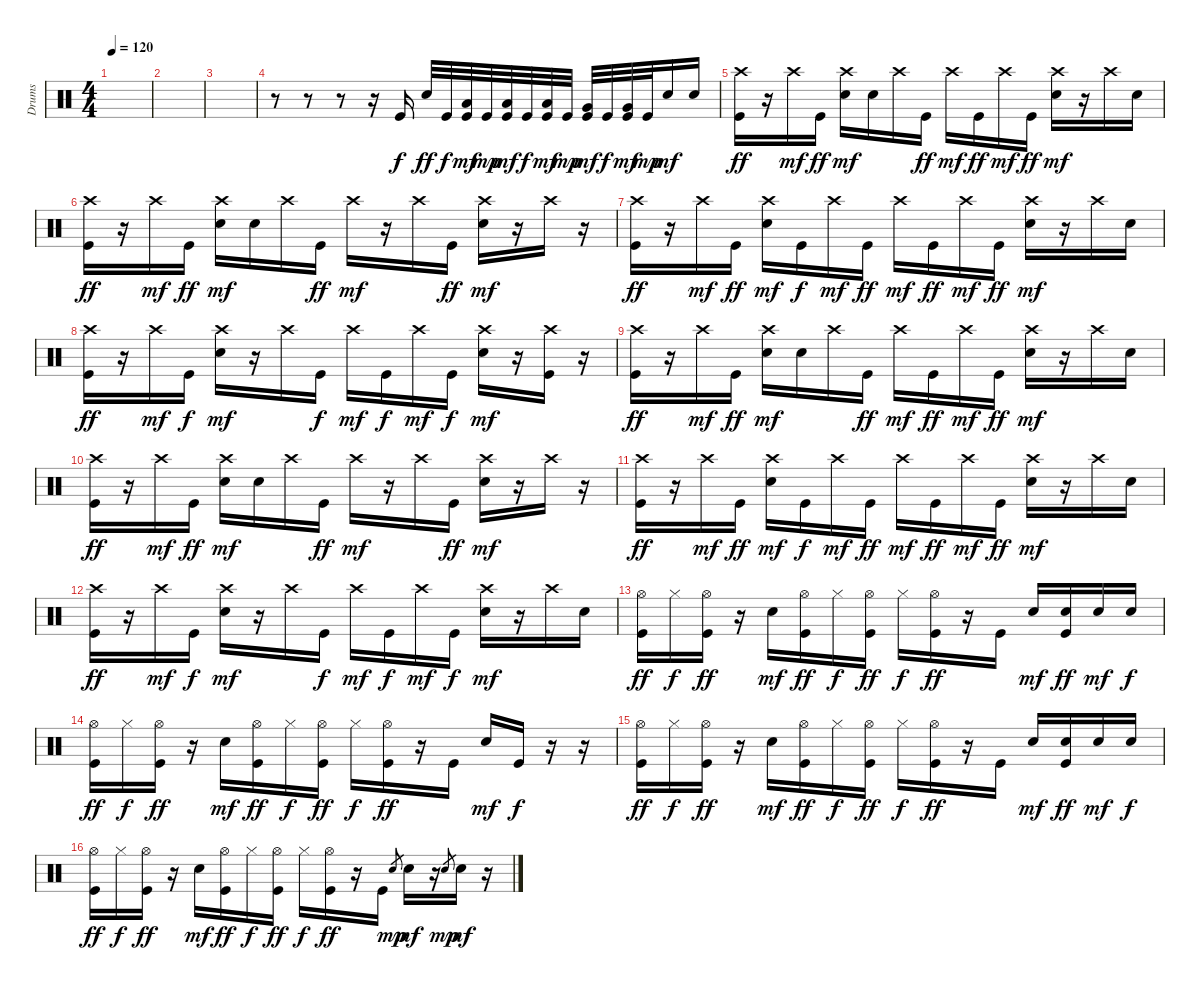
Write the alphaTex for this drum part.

\track ("Drums" "Drums") {instrument percussion}
\staff {score}
\articulation defaults
\ts (4 4)
\tempo 120
\clef neutral
\ks c
|
|
|
r.8 r.8 r.8 r.16 "Kick (hit)".16 "Metronome (bell)".32{dy ff} "Kick (hit)".32{dy f} ("Low Tom (hit)" "Kick (hit)").32{dy mf} "Kick (hit)".32{dy mp} ("Low Tom (hit)" "Kick (hit)").32{dy mf} "Kick (hit)".32{dy f} ("Low Tom (hit)" "Kick (hit)").32{dy mf} "Kick (hit)".32{dy mp} ("Very Low Tom (hit)" "Kick (hit)").32{dy mf} "Kick (hit)".32{dy f} ("Very Low Tom (hit)" "Kick (hit)").32{dy mf} "Kick (hit)".32{dy mp} "Metronome (bell)".16{dy mf} "Metronome (bell)".16 |
("Crash high (hit)" "Kick (hit)").16{dy ff} r.16 "Crash high (hit)".16{dy mf} "Kick (hit)".16{dy ff} ("Crash high (hit)" "Metronome (bell)").16{dy mf} "Metronome (bell)".16 "Crash high (hit)".16 "Kick (hit)".16{dy ff} "Crash high (hit)".16{dy mf} "Kick (hit)".16{dy ff} "Crash high (hit)".16{dy mf} "Kick (hit)".16{dy ff} ("Crash high (hit)" "Metronome (bell)").16{dy mf} r.16 "Crash high (hit)".16 "Metronome (bell)".16 |
("Crash high (hit)" "Kick (hit)").16{dy ff} r.16 "Crash high (hit)".16{dy mf} "Kick (hit)".16{dy ff} ("Crash high (hit)" "Metronome (bell)").16{dy mf} "Metronome (bell)".16 "Crash high (hit)".16 "Kick (hit)".16{dy ff} "Crash high (hit)".16{dy mf} r.16 "Crash high (hit)".16 "Kick (hit)".16{dy ff} ("Crash high (hit)" "Metronome (bell)").16{dy mf} r.16 "Crash high (hit)".16 r.16 |
("Crash high (hit)" "Kick (hit)").16{dy ff} r.16 "Crash high (hit)".16{dy mf} "Kick (hit)".16{dy ff} ("Crash high (hit)" "Metronome (bell)").16{dy mf} "Kick (hit)".16{dy f} "Crash high (hit)".16{dy mf} "Kick (hit)".16{dy ff} "Crash high (hit)".16{dy mf} "Kick (hit)".16{dy ff} "Crash high (hit)".16{dy mf} "Kick (hit)".16{dy ff} ("Crash high (hit)" "Metronome (bell)").16{dy mf} r.16 "Crash high (hit)".16 "Metronome (bell)".16 |
("Crash high (hit)" "Kick (hit)").16{dy ff} r.16 "Crash high (hit)".16{dy mf} "Kick (hit)".16{dy f} ("Crash high (hit)" "Metronome (bell)").16{dy mf} r.16 "Crash high (hit)".16 "Kick (hit)".16{dy f} "Crash high (hit)".16{dy mf} "Kick (hit)".16{dy f} "Crash high (hit)".16{dy mf} "Kick (hit)".16{dy f} ("Crash high (hit)" "Metronome (bell)").16{dy mf} r.16 ("Crash high (hit)" "Kick (hit)").16 r.16 |
("Crash high (hit)" "Kick (hit)").16{dy ff} r.16 "Crash high (hit)".16{dy mf} "Kick (hit)".16{dy ff} ("Crash high (hit)" "Metronome (bell)").16{dy mf} "Metronome (bell)".16 "Crash high (hit)".16 "Kick (hit)".16{dy ff} "Crash high (hit)".16{dy mf} "Kick (hit)".16{dy ff} "Crash high (hit)".16{dy mf} "Kick (hit)".16{dy ff} ("Crash high (hit)" "Metronome (bell)").16{dy mf} r.16 "Crash high (hit)".16 "Metronome (bell)".16 |
("Crash high (hit)" "Kick (hit)").16{dy ff} r.16 "Crash high (hit)".16{dy mf} "Kick (hit)".16{dy ff} ("Crash high (hit)" "Metronome (bell)").16{dy mf} "Metronome (bell)".16 "Crash high (hit)".16 "Kick (hit)".16{dy ff} "Crash high (hit)".16{dy mf} r.16 "Crash high (hit)".16 "Kick (hit)".16{dy ff} ("Crash high (hit)" "Metronome (bell)").16{dy mf} r.16 "Crash high (hit)".16 r.16 |
("Crash high (hit)" "Kick (hit)").16{dy ff} r.16 "Crash high (hit)".16{dy mf} "Kick (hit)".16{dy ff} ("Crash high (hit)" "Metronome (bell)").16{dy mf} "Kick (hit)".16{dy f} "Crash high (hit)".16{dy mf} "Kick (hit)".16{dy ff} "Crash high (hit)".16{dy mf} "Kick (hit)".16{dy ff} "Crash high (hit)".16{dy mf} "Kick (hit)".16{dy ff} ("Crash high (hit)" "Metronome (bell)").16{dy mf} r.16 "Crash high (hit)".16 "Metronome (bell)".16 |
("Crash high (hit)" "Kick (hit)").16{dy ff} r.16 "Crash high (hit)".16{dy mf} "Kick (hit)".16{dy f} ("Crash high (hit)" "Metronome (bell)").16{dy mf} r.16 "Crash high (hit)".16 "Kick (hit)".16{dy f} "Crash high (hit)".16{dy mf} "Kick (hit)".16{dy f} "Crash high (hit)".16{dy mf} "Kick (hit)".16{dy f} ("Crash high (hit)" "Metronome (bell)").16{dy mf} r.16 "Crash high (hit)".16 "Metronome (bell)".16 |
("Hi-Hat (open)" "Kick (hit)").16{dy ff} "Hi-Hat (closed)".16{dy f} ("Hi-Hat (open)" "Kick (hit)").16{dy ff} r.16 "Metronome (bell)".16{dy mf} ("Hi-Hat (open)" "Kick (hit)").16{dy ff} "Hi-Hat (closed)".16{dy f} ("Hi-Hat (open)" "Kick (hit)").16{dy ff} "Hi-Hat (closed)".16{dy f} ("Hi-Hat (open)" "Kick (hit)").16{dy ff} r.16 "Kick (hit)".16 "Metronome (bell)".16{dy mf} ("Metronome (bell)" "Kick (hit)").16{dy ff} "Metronome (bell)".16{dy mf} "Metronome (bell)".16{dy f} |
("Hi-Hat (open)" "Kick (hit)").16{dy ff} "Hi-Hat (closed)".16{dy f} ("Hi-Hat (open)" "Kick (hit)").16{dy ff} r.16 "Metronome (bell)".16{dy mf} ("Hi-Hat (open)" "Kick (hit)").16{dy ff} "Hi-Hat (closed)".16{dy f} ("Hi-Hat (open)" "Kick (hit)").16{dy ff} "Hi-Hat (closed)".16{dy f} ("Hi-Hat (open)" "Kick (hit)").16{dy ff} r.16 "Kick (hit)".16 "Metronome (bell)".16{dy mf} "Kick (hit)".16{dy f} r.16 r.16 |
("Hi-Hat (open)" "Kick (hit)").16{dy ff} "Hi-Hat (closed)".16{dy f} ("Hi-Hat (open)" "Kick (hit)").16{dy ff} r.16 "Metronome (bell)".16{dy mf} ("Hi-Hat (open)" "Kick (hit)").16{dy ff} "Hi-Hat (closed)".16{dy f} ("Hi-Hat (open)" "Kick (hit)").16{dy ff} "Hi-Hat (closed)".16{dy f} ("Hi-Hat (open)" "Kick (hit)").16{dy ff} r.16 "Kick (hit)".16 "Metronome (bell)".16{dy mf} ("Metronome (bell)" "Kick (hit)").16{dy ff} "Metronome (bell)".16{dy mf} "Metronome (bell)".16{dy f} |
("Hi-Hat (open)" "Kick (hit)").16{dy ff} "Hi-Hat (closed)".16{dy f} ("Hi-Hat (open)" "Kick (hit)").16{dy ff} r.16 "Metronome (bell)".16{dy mf} ("Hi-Hat (open)" "Kick (hit)").16{dy ff} "Hi-Hat (closed)".16{dy f} ("Hi-Hat (open)" "Kick (hit)").16{dy ff} "Hi-Hat (closed)".16{dy f} ("Hi-Hat (open)" "Kick (hit)").16{dy ff} r.16 "Kick (hit)".16 "Metronome (bell)".8{gr dy mp} "Metronome (bell)".16{dy mf} r.16 "Metronome (bell)".8{gr dy mp} "Metronome (bell)".16{dy mf} r.16
